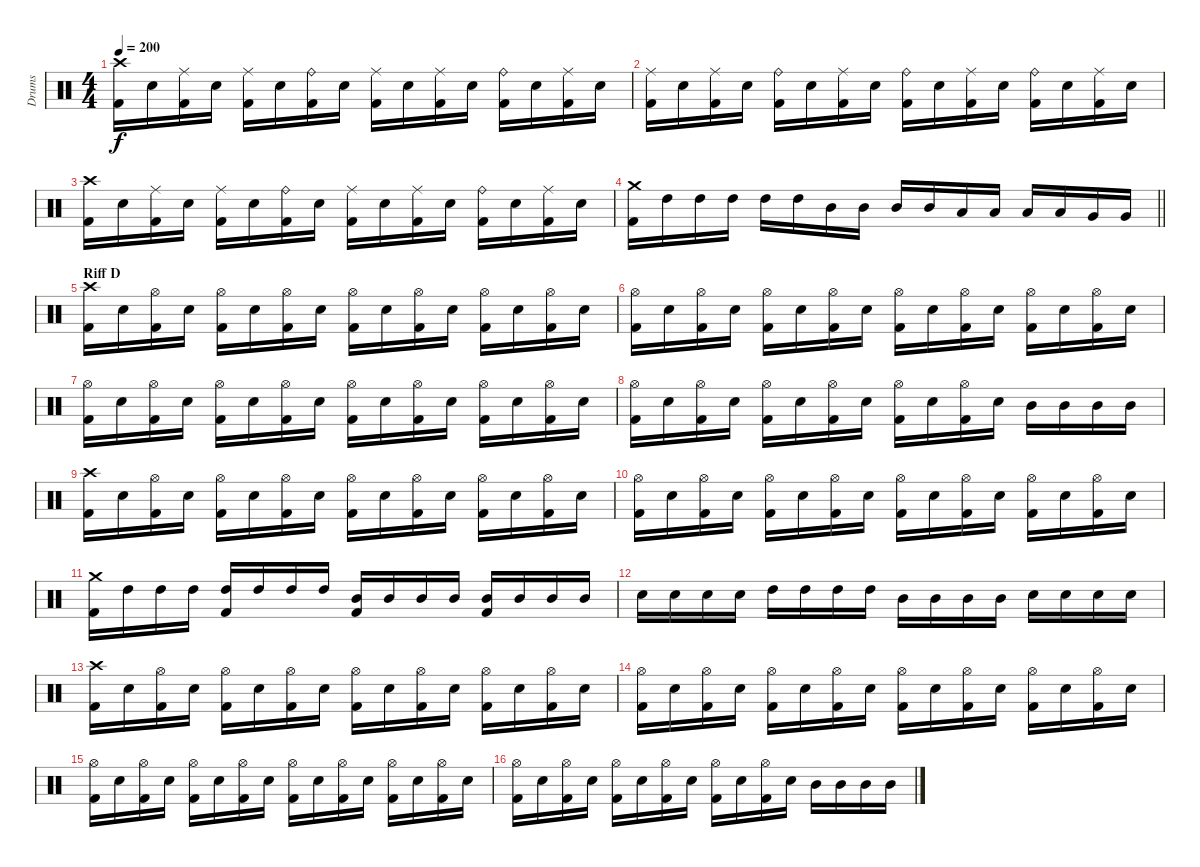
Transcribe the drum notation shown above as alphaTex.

\track ("Drums" "Drums") {instrument percussion}
\staff {score}
\articulation defaults
\ts (4 4)
\tempo 200
\clef neutral
\ks c
("Crash high (hit)" "Kick (hit) 2").16{dy f} "Electric Snare (hit)".16 ("Ride (middle)" "Kick (hit) 2").16 "Electric Snare (hit)".16 ("Ride (middle)" "Kick (hit) 2").16 "Electric Snare (hit)".16 ("Ride (bell)" "Kick (hit) 2").16 "Electric Snare (hit)".16 ("Ride (middle)" "Kick (hit) 2").16 "Electric Snare (hit)".16 ("Ride (middle)" "Kick (hit) 2").16 "Electric Snare (hit)".16 ("Ride (bell)" "Kick (hit) 2").16 "Electric Snare (hit)".16 ("Ride (middle)" "Kick (hit) 2").16 "Electric Snare (hit)".16 |
("Ride (middle)" "Kick (hit) 2").16 "Electric Snare (hit)".16 ("Ride (middle)" "Kick (hit) 2").16 "Electric Snare (hit)".16 ("Ride (bell)" "Kick (hit) 2").16 "Electric Snare (hit)".16 ("Ride (middle)" "Kick (hit) 2").16 "Electric Snare (hit)".16 ("Ride (bell)" "Kick (hit) 2").16 "Electric Snare (hit)".16 ("Ride (middle)" "Kick (hit) 2").16 "Electric Snare (hit)".16 ("Ride (bell)" "Kick (hit) 2").16 "Electric Snare (hit)".16 ("Ride (middle)" "Kick (hit) 2").16 "Electric Snare (hit)".16 |
("Crash high (hit)" "Kick (hit) 2").16 "Electric Snare (hit)".16 ("Ride (middle)" "Kick (hit) 2").16 "Electric Snare (hit)".16 ("Ride (middle)" "Kick (hit) 2").16 "Electric Snare (hit)".16 ("Ride (bell)" "Kick (hit) 2").16 "Electric Snare (hit)".16 ("Ride (middle)" "Kick (hit) 2").16 "Electric Snare (hit)".16 ("Ride (middle)" "Kick (hit) 2").16 "Electric Snare (hit)".16 ("Ride (bell)" "Kick (hit) 2").16 "Electric Snare (hit)".16 ("Ride (middle)" "Kick (hit) 2").16 "Electric Snare (hit)".16 |
\barLineRight lightlight
("Crash medium (hit)" "Kick (hit) 2").16 "High Tom (hit)".16 "High Tom (hit)".16 "High Tom (hit)".16 "High Tom (hit)".16 "High Tom (hit)".16 "Mid Tom (hit)".16 "Mid Tom (hit)".16 "Mid Tom (hit)".16 "Mid Tom (hit)".16 "Low Tom (hit)".16 "Low Tom (hit)".16 "Low Tom (hit)".16 "Low Tom (hit)".16 "Very Low Tom (hit)".16 "Very Low Tom (hit)".16 |
\section ("" "Riff D")
("Crash high (hit)" "Kick (hit) 2").16 "Electric Snare (hit)".16 ("Hi-Hat (open)" "Kick (hit) 2").16 "Electric Snare (hit)".16 ("Hi-Hat (open)" "Kick (hit) 2").16 "Electric Snare (hit)".16 ("Hi-Hat (open)" "Kick (hit) 2").16 "Electric Snare (hit)".16 ("Hi-Hat (open)" "Kick (hit) 2").16 "Electric Snare (hit)".16 ("Hi-Hat (open)" "Kick (hit) 2").16 "Electric Snare (hit)".16 ("Hi-Hat (open)" "Kick (hit) 2").16 "Electric Snare (hit)".16 ("Hi-Hat (open)" "Kick (hit) 2").16 "Electric Snare (hit)".16 |
("Hi-Hat (open)" "Kick (hit) 2").16 "Electric Snare (hit)".16 ("Hi-Hat (open)" "Kick (hit) 2").16 "Electric Snare (hit)".16 ("Hi-Hat (open)" "Kick (hit) 2").16 "Electric Snare (hit)".16 ("Hi-Hat (open)" "Kick (hit) 2").16 "Electric Snare (hit)".16 ("Hi-Hat (open)" "Kick (hit) 2").16 "Electric Snare (hit)".16 ("Hi-Hat (open)" "Kick (hit) 2").16 "Electric Snare (hit)".16 ("Hi-Hat (open)" "Kick (hit) 2").16 "Electric Snare (hit)".16 ("Hi-Hat (open)" "Kick (hit) 2").16 "Electric Snare (hit)".16 |
("Hi-Hat (open)" "Kick (hit) 2").16 "Electric Snare (hit)".16 ("Hi-Hat (open)" "Kick (hit) 2").16 "Electric Snare (hit)".16 ("Hi-Hat (open)" "Kick (hit) 2").16 "Electric Snare (hit)".16 ("Hi-Hat (open)" "Kick (hit) 2").16 "Electric Snare (hit)".16 ("Hi-Hat (open)" "Kick (hit) 2").16 "Electric Snare (hit)".16 ("Hi-Hat (open)" "Kick (hit) 2").16 "Electric Snare (hit)".16 ("Hi-Hat (open)" "Kick (hit) 2").16 "Electric Snare (hit)".16 ("Hi-Hat (open)" "Kick (hit) 2").16 "Electric Snare (hit)".16 |
("Hi-Hat (open)" "Kick (hit) 2").16 "Electric Snare (hit)".16 ("Hi-Hat (open)" "Kick (hit) 2").16 "Electric Snare (hit)".16 ("Hi-Hat (open)" "Kick (hit) 2").16 "Electric Snare (hit)".16 ("Hi-Hat (open)" "Kick (hit) 2").16 "Electric Snare (hit)".16 ("Hi-Hat (open)" "Kick (hit) 2").16 "Electric Snare (hit)".16 ("Hi-Hat (open)" "Kick (hit) 2").16 "Electric Snare (hit)".16 "Mid Tom (hit)".16 "Mid Tom (hit)".16 "Mid Tom (hit)".16 "Mid Tom (hit)".16 |
("Crash high (hit)" "Kick (hit) 2").16 "Electric Snare (hit)".16 ("Hi-Hat (open)" "Kick (hit) 2").16 "Electric Snare (hit)".16 ("Hi-Hat (open)" "Kick (hit) 2").16 "Electric Snare (hit)".16 ("Hi-Hat (open)" "Kick (hit) 2").16 "Electric Snare (hit)".16 ("Hi-Hat (open)" "Kick (hit) 2").16 "Electric Snare (hit)".16 ("Hi-Hat (open)" "Kick (hit) 2").16 "Electric Snare (hit)".16 ("Hi-Hat (open)" "Kick (hit) 2").16 "Electric Snare (hit)".16 ("Hi-Hat (open)" "Kick (hit) 2").16 "Electric Snare (hit)".16 |
("Hi-Hat (open)" "Kick (hit) 2").16 "Electric Snare (hit)".16 ("Hi-Hat (open)" "Kick (hit) 2").16 "Electric Snare (hit)".16 ("Hi-Hat (open)" "Kick (hit) 2").16 "Electric Snare (hit)".16 ("Hi-Hat (open)" "Kick (hit) 2").16 "Electric Snare (hit)".16 ("Hi-Hat (open)" "Kick (hit) 2").16 "Electric Snare (hit)".16 ("Hi-Hat (open)" "Kick (hit) 2").16 "Electric Snare (hit)".16 ("Hi-Hat (open)" "Kick (hit) 2").16 "Electric Snare (hit)".16 ("Hi-Hat (open)" "Kick (hit) 2").16 "Electric Snare (hit)".16 |
("Crash medium (hit)" "Kick (hit) 2").16 "High Tom (hit)".16 "High Tom (hit)".16 "High Tom (hit)".16 ("High Tom (hit)" "Kick (hit) 2").16 "High Tom (hit)".16 "High Tom (hit)".16 "High Tom (hit)".16 ("Mid Tom (hit)" "Kick (hit) 2").16 "Mid Tom (hit)".16 "Mid Tom (hit)".16 "Mid Tom (hit)".16 ("Mid Tom (hit)" "Kick (hit) 2").16 "Mid Tom (hit)".16 "Mid Tom (hit)".16 "Mid Tom (hit)".16 |
"Electric Snare (hit)".16 "Electric Snare (hit)".16 "Electric Snare (hit)".16 "Electric Snare (hit)".16 "High Tom (hit)".16 "High Tom (hit)".16 "High Tom (hit)".16 "High Tom (hit)".16 "Mid Tom (hit)".16 "Mid Tom (hit)".16 "Mid Tom (hit)".16 "Mid Tom (hit)".16 "Electric Snare (hit)".16 "Electric Snare (hit)".16 "Electric Snare (hit)".16 "Electric Snare (hit)".16 |
("Crash high (hit)" "Kick (hit) 2").16 "Electric Snare (hit)".16 ("Hi-Hat (open)" "Kick (hit) 2").16 "Electric Snare (hit)".16 ("Hi-Hat (open)" "Kick (hit) 2").16 "Electric Snare (hit)".16 ("Hi-Hat (open)" "Kick (hit) 2").16 "Electric Snare (hit)".16 ("Hi-Hat (open)" "Kick (hit) 2").16 "Electric Snare (hit)".16 ("Hi-Hat (open)" "Kick (hit) 2").16 "Electric Snare (hit)".16 ("Hi-Hat (open)" "Kick (hit) 2").16 "Electric Snare (hit)".16 ("Hi-Hat (open)" "Kick (hit) 2").16 "Electric Snare (hit)".16 |
("Hi-Hat (open)" "Kick (hit) 2").16 "Electric Snare (hit)".16 ("Hi-Hat (open)" "Kick (hit) 2").16 "Electric Snare (hit)".16 ("Hi-Hat (open)" "Kick (hit) 2").16 "Electric Snare (hit)".16 ("Hi-Hat (open)" "Kick (hit) 2").16 "Electric Snare (hit)".16 ("Hi-Hat (open)" "Kick (hit) 2").16 "Electric Snare (hit)".16 ("Hi-Hat (open)" "Kick (hit) 2").16 "Electric Snare (hit)".16 ("Hi-Hat (open)" "Kick (hit) 2").16 "Electric Snare (hit)".16 ("Hi-Hat (open)" "Kick (hit) 2").16 "Electric Snare (hit)".16 |
("Hi-Hat (open)" "Kick (hit) 2").16 "Electric Snare (hit)".16 ("Hi-Hat (open)" "Kick (hit) 2").16 "Electric Snare (hit)".16 ("Hi-Hat (open)" "Kick (hit) 2").16 "Electric Snare (hit)".16 ("Hi-Hat (open)" "Kick (hit) 2").16 "Electric Snare (hit)".16 ("Hi-Hat (open)" "Kick (hit) 2").16 "Electric Snare (hit)".16 ("Hi-Hat (open)" "Kick (hit) 2").16 "Electric Snare (hit)".16 ("Hi-Hat (open)" "Kick (hit) 2").16 "Electric Snare (hit)".16 ("Hi-Hat (open)" "Kick (hit) 2").16 "Electric Snare (hit)".16 |
("Hi-Hat (open)" "Kick (hit) 2").16 "Electric Snare (hit)".16 ("Hi-Hat (open)" "Kick (hit) 2").16 "Electric Snare (hit)".16 ("Hi-Hat (open)" "Kick (hit) 2").16 "Electric Snare (hit)".16 ("Hi-Hat (open)" "Kick (hit) 2").16 "Electric Snare (hit)".16 ("Hi-Hat (open)" "Kick (hit) 2").16 "Electric Snare (hit)".16 ("Hi-Hat (open)" "Kick (hit) 2").16 "Electric Snare (hit)".16 "Mid Tom (hit)".16 "Mid Tom (hit)".16 "Mid Tom (hit)".16 "Mid Tom (hit)".16
